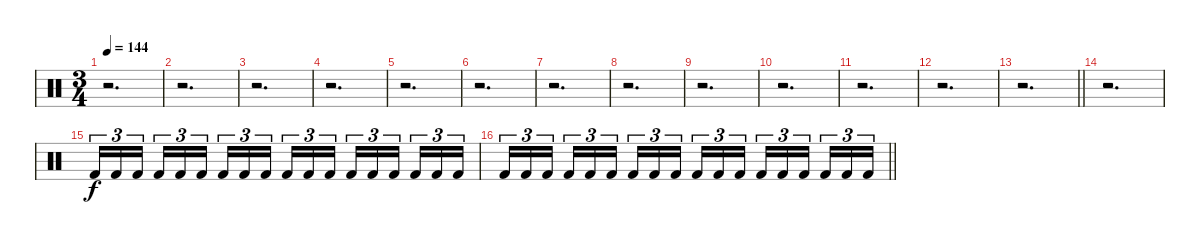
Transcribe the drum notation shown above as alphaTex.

\track "" {instrument percussion}
\staff {score}
\articulation defaults
\ts (3 4)
\tempo 144
\clef neutral
\ks c
r.2{d dy f} |
r.2{d} |
r.2{d} |
r.2{d} |
r.2{d} |
r.2{d} |
r.2{d} |
r.2{d} |
r.2{d} |
r.2{d} |
r.2{d} |
r.2{d} |
\barLineRight lightlight
r.2{d} |
r.2{d} |
"Kick (hit) 2".16{tu (3 2)} "Kick (hit) 2".16{tu (3 2)} "Kick (hit) 2".16{tu (3 2) beam splitsecondary} "Kick (hit) 2".16{tu (3 2)} "Kick (hit) 2".16{tu (3 2)} "Kick (hit) 2".16{tu (3 2)} "Kick (hit) 2".16{tu (3 2)} "Kick (hit) 2".16{tu (3 2)} "Kick (hit) 2".16{tu (3 2) beam splitsecondary} "Kick (hit) 2".16{tu (3 2)} "Kick (hit) 2".16{tu (3 2)} "Kick (hit) 2".16{tu (3 2)} "Kick (hit) 2".16{tu (3 2)} "Kick (hit) 2".16{tu (3 2)} "Kick (hit) 2".16{tu (3 2) beam splitsecondary} "Kick (hit) 2".16{tu (3 2)} "Kick (hit) 2".16{tu (3 2)} "Kick (hit) 2".16{tu (3 2)} |
\barLineRight lightlight "Kick (hit) 2".16{tu (3 2)} "Kick (hit) 2".16{tu (3 2)} "Kick (hit) 2".16{tu (3 2) beam splitsecondary} "Kick (hit) 2".16{tu (3 2)} "Kick (hit) 2".16{tu (3 2)} "Kick (hit) 2".16{tu (3 2)} "Kick (hit) 2".16{tu (3 2)} "Kick (hit) 2".16{tu (3 2)} "Kick (hit) 2".16{tu (3 2) beam splitsecondary} "Kick (hit) 2".16{tu (3 2)} "Kick (hit) 2".16{tu (3 2)} "Kick (hit) 2".16{tu (3 2)} "Kick (hit) 2".16{tu (3 2)} "Kick (hit) 2".16{tu (3 2)} "Kick (hit) 2".16{tu (3 2) beam splitsecondary} "Kick (hit) 2".16{tu (3 2)} "Kick (hit) 2".16{tu (3 2)} "Kick (hit) 2".16{tu (3 2)}
